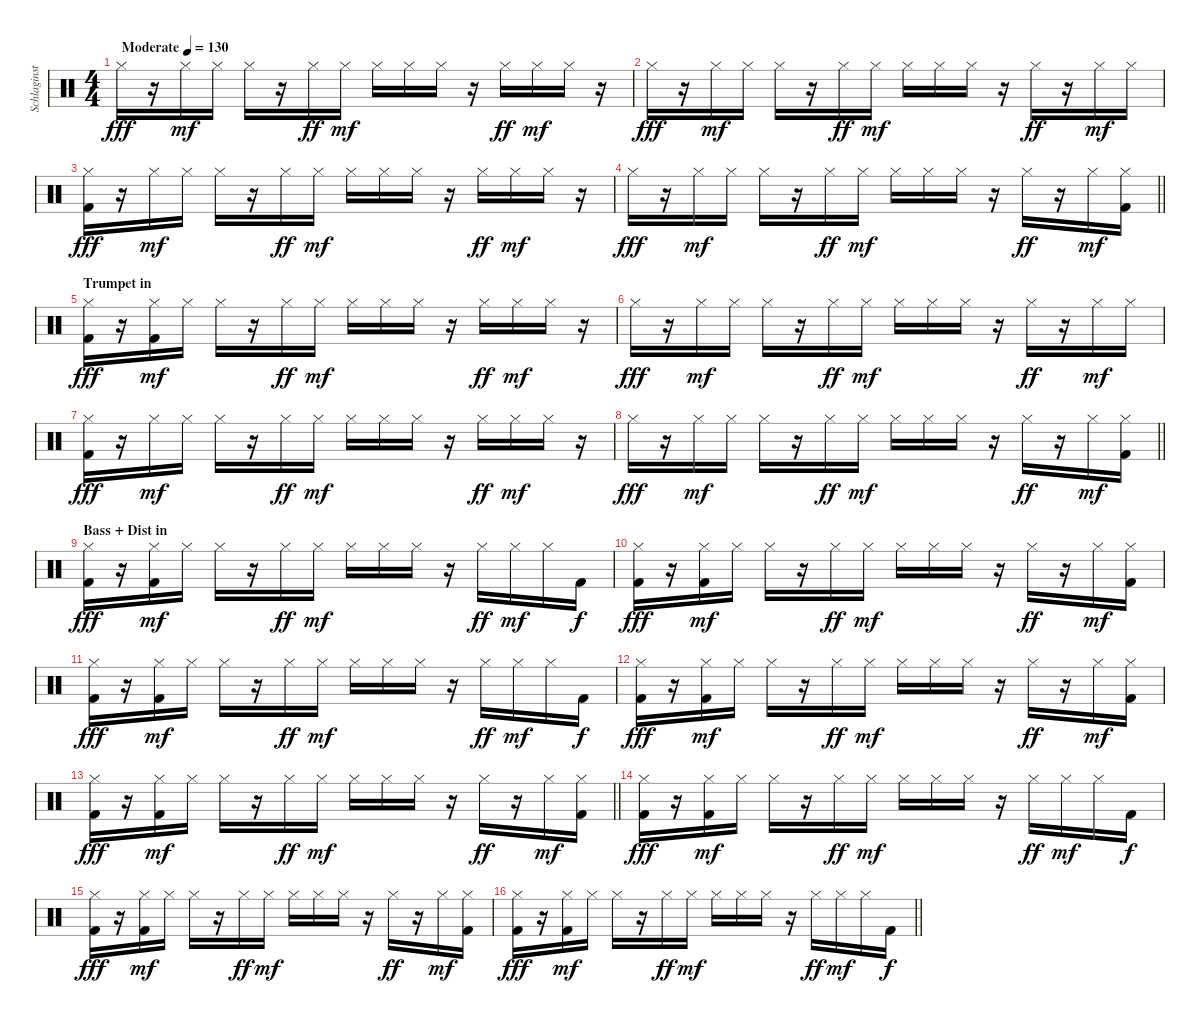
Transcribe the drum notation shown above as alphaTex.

\track ("Schlaginstrumente - Auswahl" "Schlaginst") {instrument percussion}
\staff {score}
\articulation defaults
\ts (4 4)
\tempo (130 "Moderate")
\clef neutral
\ks c "Hi-Hat (closed)".16{dy fff}
r.16 "Hi-Hat (closed)".16{dy mf} "Hi-Hat (closed)".16 "Hi-Hat (closed)".16 r.16 "Hi-Hat (closed)".16{dy ff} "Hi-Hat (closed)".16{dy mf} "Hi-Hat (closed)".16 "Hi-Hat (closed)".16 "Hi-Hat (closed)".16 r.16 "Hi-Hat (closed)".16{dy ff} "Hi-Hat (closed)".16{dy mf} "Hi-Hat (closed)".16 r.16 |
"Hi-Hat (closed)".16{dy fff} r.16 "Hi-Hat (closed)".16{dy mf} "Hi-Hat (closed)".16 "Hi-Hat (closed)".16 r.16 "Hi-Hat (closed)".16{dy ff} "Hi-Hat (closed)".16{dy mf} "Hi-Hat (closed)".16 "Hi-Hat (closed)".16 "Hi-Hat (closed)".16 r.16 "Hi-Hat (closed)".16{dy ff} r.16 "Hi-Hat (closed)".16{dy mf} "Hi-Hat (closed)".16 |
("Hi-Hat (closed)" "Kick (hit) 2").16{dy fff} r.16 "Hi-Hat (closed)".16{dy mf} "Hi-Hat (closed)".16 "Hi-Hat (closed)".16 r.16 "Hi-Hat (closed)".16{dy ff} "Hi-Hat (closed)".16{dy mf} "Hi-Hat (closed)".16 "Hi-Hat (closed)".16 "Hi-Hat (closed)".16 r.16 "Hi-Hat (closed)".16{dy ff} "Hi-Hat (closed)".16{dy mf} "Hi-Hat (closed)".16 r.16 |
\barLineRight lightlight "Hi-Hat (closed)".16{dy fff}
r.16 "Hi-Hat (closed)".16{dy mf} "Hi-Hat (closed)".16 "Hi-Hat (closed)".16 r.16 "Hi-Hat (closed)".16{dy ff} "Hi-Hat (closed)".16{dy mf} "Hi-Hat (closed)".16 "Hi-Hat (closed)".16 "Hi-Hat (closed)".16 r.16 "Hi-Hat (closed)".16{dy ff} r.16 "Hi-Hat (closed)".16{dy mf} ("Hi-Hat (closed)" "Kick (hit) 2").16 |
\section ("" "Trumpet in")
("Hi-Hat (closed)" "Kick (hit) 2").16{dy fff} r.16 ("Hi-Hat (closed)" "Kick (hit) 2").16{dy mf} "Hi-Hat (closed)".16 "Hi-Hat (closed)".16 r.16 "Hi-Hat (closed)".16{dy ff} "Hi-Hat (closed)".16{dy mf} "Hi-Hat (closed)".16 "Hi-Hat (closed)".16 "Hi-Hat (closed)".16 r.16 "Hi-Hat (closed)".16{dy ff} "Hi-Hat (closed)".16{dy mf} "Hi-Hat (closed)".16 r.16 |
"Hi-Hat (closed)".16{dy fff} r.16 "Hi-Hat (closed)".16{dy mf} "Hi-Hat (closed)".16 "Hi-Hat (closed)".16 r.16 "Hi-Hat (closed)".16{dy ff} "Hi-Hat (closed)".16{dy mf} "Hi-Hat (closed)".16 "Hi-Hat (closed)".16 "Hi-Hat (closed)".16 r.16 "Hi-Hat (closed)".16{dy ff} r.16 "Hi-Hat (closed)".16{dy mf} "Hi-Hat (closed)".16 |
("Hi-Hat (closed)" "Kick (hit) 2").16{dy fff} r.16 "Hi-Hat (closed)".16{dy mf} "Hi-Hat (closed)".16 "Hi-Hat (closed)".16 r.16 "Hi-Hat (closed)".16{dy ff} "Hi-Hat (closed)".16{dy mf} "Hi-Hat (closed)".16 "Hi-Hat (closed)".16 "Hi-Hat (closed)".16 r.16 "Hi-Hat (closed)".16{dy ff} "Hi-Hat (closed)".16{dy mf} "Hi-Hat (closed)".16 r.16 |
\barLineRight lightlight "Hi-Hat (closed)".16{dy fff}
r.16 "Hi-Hat (closed)".16{dy mf} "Hi-Hat (closed)".16 "Hi-Hat (closed)".16 r.16 "Hi-Hat (closed)".16{dy ff} "Hi-Hat (closed)".16{dy mf} "Hi-Hat (closed)".16 "Hi-Hat (closed)".16 "Hi-Hat (closed)".16 r.16 "Hi-Hat (closed)".16{dy ff} r.16 "Hi-Hat (closed)".16{dy mf} ("Hi-Hat (closed)" "Kick (hit) 2").16 |
\section ("" "Bass + Dist in")
("Hi-Hat (closed)" "Kick (hit) 2").16{dy fff} r.16 ("Hi-Hat (closed)" "Kick (hit) 2").16{dy mf} "Hi-Hat (closed)".16 "Hi-Hat (closed)".16 r.16 "Hi-Hat (closed)".16{dy ff} "Hi-Hat (closed)".16{dy mf} "Hi-Hat (closed)".16 "Hi-Hat (closed)".16 "Hi-Hat (closed)".16 r.16 "Hi-Hat (closed)".16{dy ff} "Hi-Hat (closed)".16{dy mf} "Hi-Hat (closed)".16 "Kick (hit) 2".16{dy f} |
("Hi-Hat (closed)" "Kick (hit) 2").16{dy fff} r.16 ("Hi-Hat (closed)" "Kick (hit) 2").16{dy mf} "Hi-Hat (closed)".16 "Hi-Hat (closed)".16 r.16 "Hi-Hat (closed)".16{dy ff} "Hi-Hat (closed)".16{dy mf} "Hi-Hat (closed)".16 "Hi-Hat (closed)".16 "Hi-Hat (closed)".16 r.16 "Hi-Hat (closed)".16{dy ff} r.16 "Hi-Hat (closed)".16{dy mf} ("Hi-Hat (closed)" "Kick (hit) 2").16 |
("Hi-Hat (closed)" "Kick (hit) 2").16{dy fff} r.16 ("Hi-Hat (closed)" "Kick (hit) 2").16{dy mf} "Hi-Hat (closed)".16 "Hi-Hat (closed)".16 r.16 "Hi-Hat (closed)".16{dy ff} "Hi-Hat (closed)".16{dy mf} "Hi-Hat (closed)".16 "Hi-Hat (closed)".16 "Hi-Hat (closed)".16 r.16 "Hi-Hat (closed)".16{dy ff} "Hi-Hat (closed)".16{dy mf} "Hi-Hat (closed)".16 "Kick (hit) 2".16{dy f} |
("Hi-Hat (closed)" "Kick (hit) 2").16{dy fff} r.16 ("Hi-Hat (closed)" "Kick (hit) 2").16{dy mf} "Hi-Hat (closed)".16 "Hi-Hat (closed)".16 r.16 "Hi-Hat (closed)".16{dy ff} "Hi-Hat (closed)".16{dy mf} "Hi-Hat (closed)".16 "Hi-Hat (closed)".16 "Hi-Hat (closed)".16 r.16 "Hi-Hat (closed)".16{dy ff} r.16 "Hi-Hat (closed)".16{dy mf} ("Hi-Hat (closed)" "Kick (hit) 2").16 |
\barLineRight lightlight
("Hi-Hat (closed)" "Kick (hit) 2").16{dy fff} r.16 ("Hi-Hat (closed)" "Kick (hit) 2").16{dy mf} "Hi-Hat (closed)".16 "Hi-Hat (closed)".16 r.16 "Hi-Hat (closed)".16{dy ff} "Hi-Hat (closed)".16{dy mf} "Hi-Hat (closed)".16 "Hi-Hat (closed)".16 "Hi-Hat (closed)".16 r.16 "Hi-Hat (closed)".16{dy ff} r.16 "Hi-Hat (closed)".16{dy mf} ("Hi-Hat (closed)" "Kick (hit) 2").16 |
("Hi-Hat (closed)" "Kick (hit) 2").16{dy fff} r.16 ("Hi-Hat (closed)" "Kick (hit) 2").16{dy mf} "Hi-Hat (closed)".16 "Hi-Hat (closed)".16 r.16 "Hi-Hat (closed)".16{dy ff} "Hi-Hat (closed)".16{dy mf} "Hi-Hat (closed)".16 "Hi-Hat (closed)".16 "Hi-Hat (closed)".16 r.16 "Hi-Hat (closed)".16{dy ff} "Hi-Hat (closed)".16{dy mf} "Hi-Hat (closed)".16 "Kick (hit) 2".16{dy f} |
("Hi-Hat (closed)" "Kick (hit) 2").16{dy fff} r.16 ("Hi-Hat (closed)" "Kick (hit) 2").16{dy mf} "Hi-Hat (closed)".16 "Hi-Hat (closed)".16 r.16 "Hi-Hat (closed)".16{dy ff} "Hi-Hat (closed)".16{dy mf} "Hi-Hat (closed)".16 "Hi-Hat (closed)".16 "Hi-Hat (closed)".16 r.16 "Hi-Hat (closed)".16{dy ff} r.16 "Hi-Hat (closed)".16{dy mf} ("Hi-Hat (closed)" "Kick (hit) 2").16 |
\barLineRight lightlight
("Hi-Hat (closed)" "Kick (hit) 2").16{dy fff} r.16 ("Hi-Hat (closed)" "Kick (hit) 2").16{dy mf} "Hi-Hat (closed)".16 "Hi-Hat (closed)".16 r.16 "Hi-Hat (closed)".16{dy ff} "Hi-Hat (closed)".16{dy mf} "Hi-Hat (closed)".16 "Hi-Hat (closed)".16 "Hi-Hat (closed)".16 r.16 "Hi-Hat (closed)".16{dy ff} "Hi-Hat (closed)".16{dy mf} "Hi-Hat (closed)".16 "Kick (hit) 2".16{dy f}
